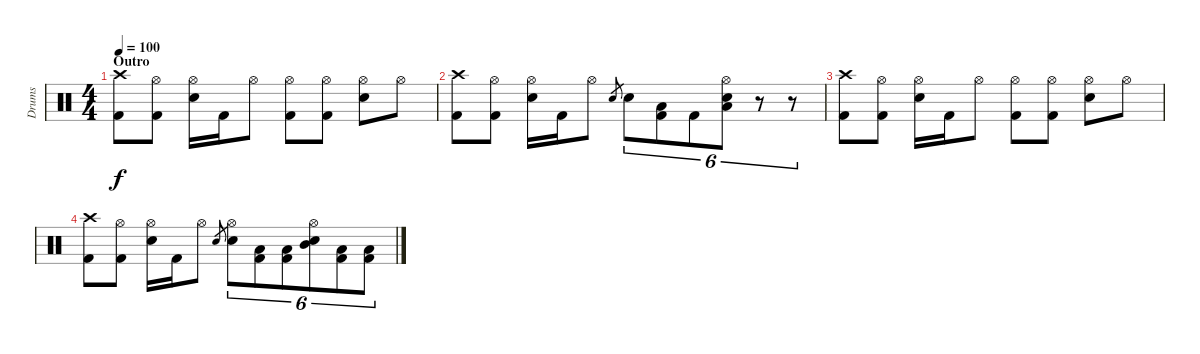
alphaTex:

\track ("Drums" "Drums") {instrument percussion}
\staff {score}
\articulation defaults
\ts (4 4)
\section ("" "Outro")
\tempo 100
\clef neutral
\ks c
("Crash high (hit)" "Kick (hit) 2").8{dy f} ("Hi-Hat (open)" "Kick (hit) 2").8 ("Hi-Hat (open)" "Electric Snare (hit)").16 "Kick (hit) 2".16 "Hi-Hat (open)".8 ("Hi-Hat (open)" "Kick (hit) 2").8 ("Hi-Hat (open)" "Kick (hit) 2").8 ("Hi-Hat (open)" "Electric Snare (hit)").8 "Hi-Hat (open)".8 |
("Crash high (hit)" "Kick (hit) 2").8 ("Hi-Hat (open)" "Kick (hit) 2").8 ("Hi-Hat (open)" "Electric Snare (hit)").16 "Kick (hit) 2".16 "Hi-Hat (open)".8 "Electric Snare (hit)".8{gr} "Electric Snare (hit)".8{tu (6 4)} ("Low Floor Tom (hit)" "Kick (hit) 2").8{tu (6 4)} "Kick (hit) 2".8{tu (6 4)} ("Hi-Hat (open)" "Electric Snare (hit)" "Low Tom (hit)").8{tu (6 4)} r.8{tu (6 4)} r.8{tu (6 4)} |
("Crash high (hit)" "Kick (hit) 2").8 ("Hi-Hat (open)" "Kick (hit) 2").8 ("Hi-Hat (open)" "Electric Snare (hit)").16 "Kick (hit) 2".16 "Hi-Hat (open)".8 ("Hi-Hat (open)" "Kick (hit) 2").8 ("Hi-Hat (open)" "Kick (hit) 2").8 ("Hi-Hat (open)" "Electric Snare (hit)").8 "Hi-Hat (open)".8 |
("Crash high (hit)" "Kick (hit) 2").8 ("Hi-Hat (open)" "Kick (hit) 2").8 ("Hi-Hat (open)" "Electric Snare (hit)").16 "Kick (hit) 2".16 "Hi-Hat (open)".8 "Electric Snare (hit)".8{gr} ("Hi-Hat (open)" "Electric Snare (hit)").8{tu (6 4)} ("Low Floor Tom (hit)" "Kick (hit) 2").8{tu (6 4)} ("Low Floor Tom (hit)" "Kick (hit) 2").8{tu (6 4)} ("Hi-Hat (open)" "Electric Snare (hit)" "Mid Tom (hit)").8{tu (6 4)} ("Low Floor Tom (hit)" "Kick (hit) 2").8{tu (6 4)} ("Low Floor Tom (hit)" "Kick (hit) 2").8{tu (6 4)}
